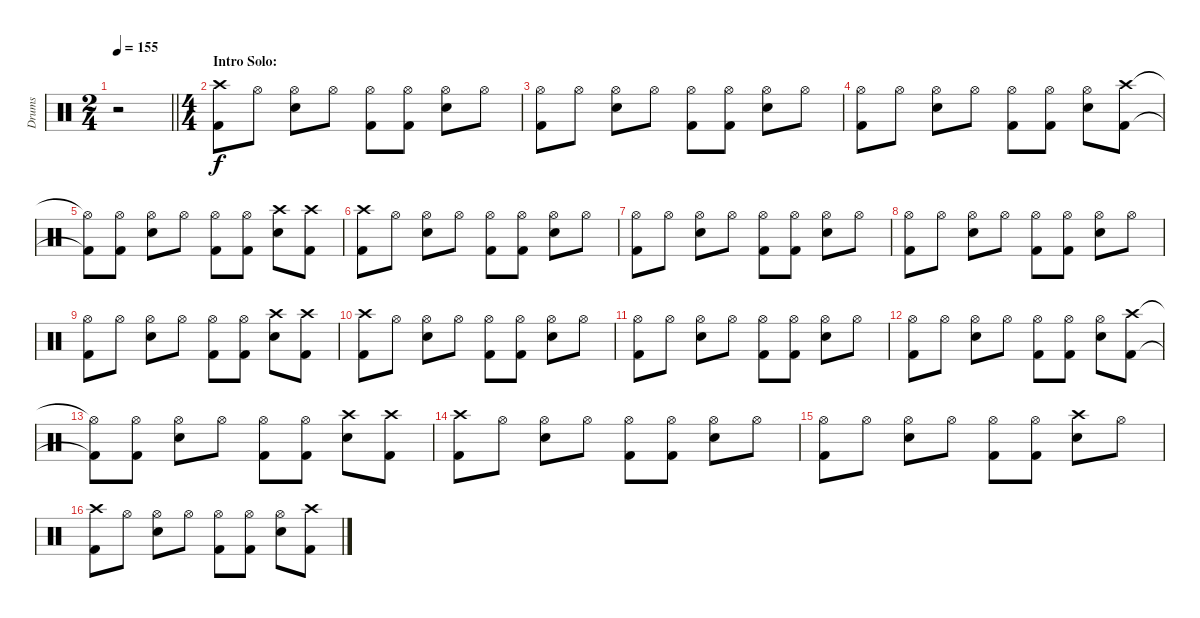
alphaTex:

\track ("Drums" "Drums") {instrument percussion}
\staff {score}
\articulation defaults
\ts (2 4)
\tempo 155
\clef neutral
\barLineRight lightlight
\ks c
r.2{dy f} |
\ts (4 4)
\section ("" "Intro Solo:")
("Crash high (hit)" "Kick (hit) 2").8 "Hi-Hat (open)".8 ("Hi-Hat (open)" "Electric Snare (hit)").8 "Hi-Hat (open)".8 ("Hi-Hat (open)" "Kick (hit) 2").8 ("Hi-Hat (open)" "Kick (hit) 2").8 ("Hi-Hat (open)" "Electric Snare (hit)").8 "Hi-Hat (open)".8 |
("Hi-Hat (open)" "Kick (hit) 2").8 "Hi-Hat (open)".8 ("Hi-Hat (open)" "Electric Snare (hit)").8 "Hi-Hat (open)".8 ("Hi-Hat (open)" "Kick (hit) 2").8 ("Hi-Hat (open)" "Kick (hit) 2").8 ("Hi-Hat (open)" "Electric Snare (hit)").8 "Hi-Hat (open)".8 |
("Hi-Hat (open)" "Kick (hit) 2").8 "Hi-Hat (open)".8 ("Hi-Hat (open)" "Electric Snare (hit)").8 "Hi-Hat (open)".8 ("Hi-Hat (open)" "Kick (hit) 2").8 ("Hi-Hat (open)" "Kick (hit) 2").8 ("Hi-Hat (open)" "Electric Snare (hit)").8 ("Crash high (hit)" "Kick (hit) 2").8 |
("Hi-Hat (open)"{t} "Kick (hit) 2"{t}).8 ("Hi-Hat (open)" "Kick (hit) 2").8 ("Hi-Hat (open)" "Electric Snare (hit)").8 "Hi-Hat (open)".8 ("Hi-Hat (open)" "Kick (hit) 2").8 ("Hi-Hat (open)" "Kick (hit) 2").8 ("Crash high (hit)" "Electric Snare (hit)").8 ("Crash high (hit)" "Kick (hit) 2").8 |
("Crash high (hit)" "Kick (hit) 2").8 "Hi-Hat (open)".8 ("Hi-Hat (open)" "Electric Snare (hit)").8 "Hi-Hat (open)".8 ("Hi-Hat (open)" "Kick (hit) 2").8 ("Hi-Hat (open)" "Kick (hit) 2").8 ("Hi-Hat (open)" "Electric Snare (hit)").8 "Hi-Hat (open)".8 |
("Hi-Hat (open)" "Kick (hit) 2").8 "Hi-Hat (open)".8 ("Hi-Hat (open)" "Electric Snare (hit)").8 "Hi-Hat (open)".8 ("Hi-Hat (open)" "Kick (hit) 2").8 ("Hi-Hat (open)" "Kick (hit) 2").8 ("Hi-Hat (open)" "Electric Snare (hit)").8 "Hi-Hat (open)".8 |
("Hi-Hat (open)" "Kick (hit) 2").8 "Hi-Hat (open)".8 ("Hi-Hat (open)" "Electric Snare (hit)").8 "Hi-Hat (open)".8 ("Hi-Hat (open)" "Kick (hit) 2").8 ("Hi-Hat (open)" "Kick (hit) 2").8 ("Hi-Hat (open)" "Electric Snare (hit)").8 "Hi-Hat (open)".8 |
("Hi-Hat (open)" "Kick (hit) 2").8 "Hi-Hat (open)".8 ("Hi-Hat (open)" "Electric Snare (hit)").8 "Hi-Hat (open)".8 ("Hi-Hat (open)" "Kick (hit) 2").8 ("Hi-Hat (open)" "Kick (hit) 2").8 ("Crash high (hit)" "Electric Snare (hit)").8 ("Crash high (hit)" "Kick (hit) 2").8 |
("Crash high (hit)" "Kick (hit) 2").8 "Hi-Hat (open)".8 ("Hi-Hat (open)" "Electric Snare (hit)").8 "Hi-Hat (open)".8 ("Hi-Hat (open)" "Kick (hit) 2").8 ("Hi-Hat (open)" "Kick (hit) 2").8 ("Hi-Hat (open)" "Electric Snare (hit)").8 "Hi-Hat (open)".8 |
("Hi-Hat (open)" "Kick (hit) 2").8 "Hi-Hat (open)".8 ("Hi-Hat (open)" "Electric Snare (hit)").8 "Hi-Hat (open)".8 ("Hi-Hat (open)" "Kick (hit) 2").8 ("Hi-Hat (open)" "Kick (hit) 2").8 ("Hi-Hat (open)" "Electric Snare (hit)").8 "Hi-Hat (open)".8 |
("Hi-Hat (open)" "Kick (hit) 2").8 "Hi-Hat (open)".8 ("Hi-Hat (open)" "Electric Snare (hit)").8 "Hi-Hat (open)".8 ("Hi-Hat (open)" "Kick (hit) 2").8 ("Hi-Hat (open)" "Kick (hit) 2").8 ("Hi-Hat (open)" "Electric Snare (hit)").8 ("Crash high (hit)" "Kick (hit) 2").8 |
("Hi-Hat (open)"{t} "Kick (hit) 2"{t}).8 ("Hi-Hat (open)" "Kick (hit) 2").8 ("Hi-Hat (open)" "Electric Snare (hit)").8 "Hi-Hat (open)".8 ("Hi-Hat (open)" "Kick (hit) 2").8 ("Hi-Hat (open)" "Kick (hit) 2").8 ("Crash high (hit)" "Electric Snare (hit)").8 ("Crash high (hit)" "Kick (hit) 2").8 |
("Crash high (hit)" "Kick (hit) 2").8 "Hi-Hat (open)".8 ("Hi-Hat (open)" "Electric Snare (hit)").8 "Hi-Hat (open)".8 ("Hi-Hat (open)" "Kick (hit) 2").8 ("Hi-Hat (open)" "Kick (hit) 2").8 ("Hi-Hat (open)" "Electric Snare (hit)").8 "Hi-Hat (open)".8 |
("Hi-Hat (open)" "Kick (hit) 2").8 "Hi-Hat (open)".8 ("Hi-Hat (open)" "Electric Snare (hit)").8 "Hi-Hat (open)".8 ("Hi-Hat (open)" "Kick (hit) 2").8 ("Hi-Hat (open)" "Kick (hit) 2").8 ("Crash high (hit)" "Electric Snare (hit)").8 "Hi-Hat (open)".8 |
("Crash high (hit)" "Kick (hit) 2").8 "Hi-Hat (open)".8 ("Hi-Hat (open)" "Electric Snare (hit)").8 "Hi-Hat (open)".8 ("Hi-Hat (open)" "Kick (hit) 2").8 ("Hi-Hat (open)" "Kick (hit) 2").8 ("Hi-Hat (open)" "Electric Snare (hit)").8 ("Crash high (hit)" "Kick (hit) 2").8
